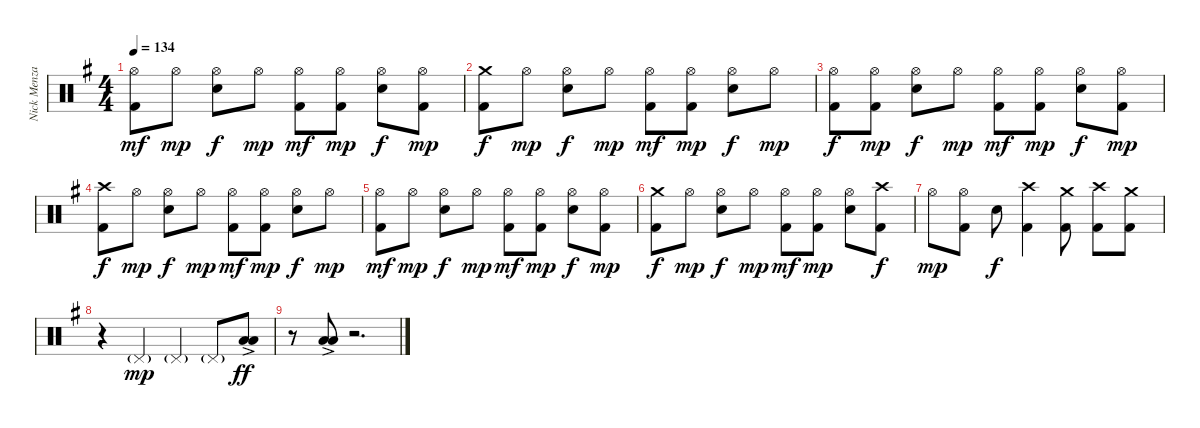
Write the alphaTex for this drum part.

\track ("Nick Menza" "Nick Menza") {instrument percussion}
\staff {score}
\articulation defaults
\ts (4 4)
\tempo 134
\clef neutral
\ks eminor
("Hi-Hat (open)" "Kick (hit) 2").8{dy mf} "Hi-Hat (open)".8{dy mp} ("Hi-Hat (open)" "Snare (hit) 2").8{dy f} "Hi-Hat (open)".8{dy mp} ("Hi-Hat (open)" "Kick (hit) 2").8{dy mf} ("Hi-Hat (open)" "Kick (hit) 2").8{dy mp} ("Hi-Hat (open)" "Snare (hit) 2").8{dy f} ("Hi-Hat (open)" "Kick (hit) 2").8{dy mp} |
("Crash medium (hit)" "Kick (hit) 2").8{dy f} "Hi-Hat (open)".8{dy mp} ("Hi-Hat (open)" "Snare (hit) 2").8{dy f} "Hi-Hat (open)".8{dy mp} ("Hi-Hat (open)" "Kick (hit) 2").8{dy mf} ("Hi-Hat (open)" "Kick (hit) 2").8{dy mp} ("Hi-Hat (open)" "Snare (hit) 2").8{dy f} "Hi-Hat (open)".8{dy mp} |
("Hi-Hat (open)" "Kick (hit) 2").8{dy f} ("Hi-Hat (open)" "Kick (hit) 2").8{dy mp} ("Hi-Hat (open)" "Snare (hit) 2").8{dy f} "Hi-Hat (open)".8{dy mp} ("Hi-Hat (open)" "Kick (hit) 2").8{dy mf} ("Hi-Hat (open)" "Kick (hit) 2").8{dy mp} ("Hi-Hat (open)" "Snare (hit) 2").8{dy f} ("Hi-Hat (open)" "Kick (hit) 2").8{dy mp} |
("Crash high (hit)" "Kick (hit) 2").8{dy f} "Hi-Hat (open)".8{dy mp} ("Hi-Hat (open)" "Snare (hit) 2").8{dy f} "Hi-Hat (open)".8{dy mp} ("Hi-Hat (open)" "Kick (hit) 2").8{dy mf} ("Hi-Hat (open)" "Kick (hit) 2").8{dy mp} ("Hi-Hat (open)" "Snare (hit) 2").8{dy f} "Hi-Hat (open)".8{dy mp} |
("Hi-Hat (open)" "Kick (hit) 2").8{dy mf} "Hi-Hat (open)".8{dy mp} ("Hi-Hat (open)" "Snare (hit) 2").8{dy f} "Hi-Hat (open)".8{dy mp} ("Hi-Hat (open)" "Kick (hit) 2").8{dy mf} ("Hi-Hat (open)" "Kick (hit) 2").8{dy mp} ("Hi-Hat (open)" "Snare (hit) 2").8{dy f} ("Hi-Hat (open)" "Kick (hit) 2").8{dy mp} |
("Crash medium (hit)" "Kick (hit) 2").8{dy f} "Hi-Hat (open)".8{dy mp} ("Hi-Hat (open)" "Snare (hit) 2").8{dy f} "Hi-Hat (open)".8{dy mp} ("Hi-Hat (open)" "Kick (hit) 2").8{dy mf} ("Hi-Hat (open)" "Kick (hit) 2").8{dy mp} ("Hi-Hat (open)" "Snare (hit) 2").8 ("Crash high (hit)" "Kick (hit) 2").8{dy f} |
"Hi-Hat (open)".8{dy mp} ("Hi-Hat (open)" "Kick (hit) 2").8 "Snare (hit) 2".8{dy f} ("Crash high (hit)" "Kick (hit) 2").4 ("Crash medium (hit)" "Kick (hit) 2").8 ("Crash high (hit)" "Kick (hit) 2").8 ("Crash medium (hit)" "Kick (hit) 2").8 |
r.4 "Pedal Hi-Hat (hit)"{g}.4{dy mp} "Pedal Hi-Hat (hit)"{g}.4 "Pedal Hi-Hat (hit)"{g}.8 ("Low Floor Tom (hit)"{ac} "Low Tom (hit)"{ac}).8{dy ff} |
r.8 ("Low Floor Tom (hit)"{ac} "Low Floor Tom (hit)"{ac}).8 r.2{d}
